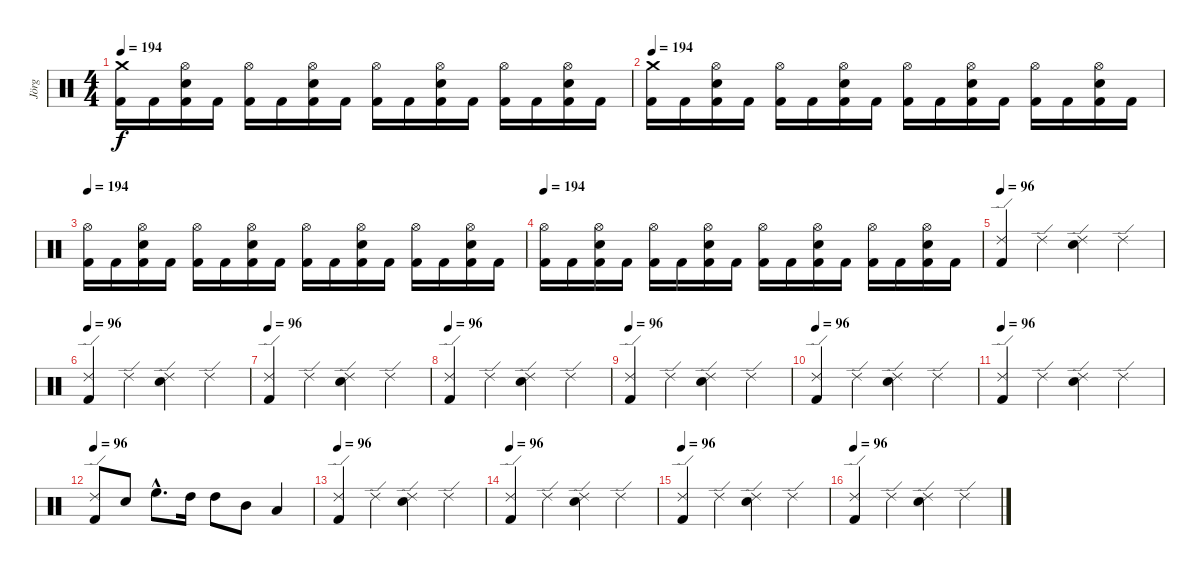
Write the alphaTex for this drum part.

\track ("Jörg" "Jörg") {instrument percussion}
\staff {score}
\articulation defaults
\ts (4 4)
\tempo 194
\clef neutral
\ks c
("Crash medium (hit)" "Kick (hit) 2").16{dy f} "Kick (hit) 2".16 ("Kick (hit) 2" "Snare (hit) 2" "Hi-Hat (open)").16 "Kick (hit) 2".16 ("Kick (hit) 2" "Hi-Hat (open)").16 "Kick (hit) 2".16 ("Kick (hit) 2" "Snare (hit) 2" "Hi-Hat (open)").16 "Kick (hit) 2".16 ("Kick (hit) 2" "Hi-Hat (open)").16 "Kick (hit) 2".16 ("Kick (hit) 2" "Snare (hit) 2" "Hi-Hat (open)").16 "Kick (hit) 2".16 ("Kick (hit) 2" "Hi-Hat (open)").16 "Kick (hit) 2".16 ("Kick (hit) 2" "Snare (hit) 2" "Hi-Hat (open)").16 "Kick (hit) 2".16 |
\tempo 194
("Crash medium (hit)" "Kick (hit) 2").16 "Kick (hit) 2".16 ("Kick (hit) 2" "Snare (hit) 2" "Hi-Hat (open)").16 "Kick (hit) 2".16 ("Kick (hit) 2" "Hi-Hat (open)").16 "Kick (hit) 2".16 ("Kick (hit) 2" "Snare (hit) 2" "Hi-Hat (open)").16 "Kick (hit) 2".16 ("Kick (hit) 2" "Hi-Hat (open)").16 "Kick (hit) 2".16 ("Kick (hit) 2" "Snare (hit) 2" "Hi-Hat (open)").16 "Kick (hit) 2".16 ("Kick (hit) 2" "Hi-Hat (open)").16 "Kick (hit) 2".16 ("Kick (hit) 2" "Snare (hit) 2" "Hi-Hat (open)").16 "Kick (hit) 2".16 |
\tempo 194
("Kick (hit) 2" "Hi-Hat (open)").16 "Kick (hit) 2".16 ("Kick (hit) 2" "Snare (hit) 2" "Hi-Hat (open)").16 "Kick (hit) 2".16 ("Kick (hit) 2" "Hi-Hat (open)").16 "Kick (hit) 2".16 ("Kick (hit) 2" "Snare (hit) 2" "Hi-Hat (open)").16 "Kick (hit) 2".16 ("Kick (hit) 2" "Hi-Hat (open)").16 "Kick (hit) 2".16 ("Kick (hit) 2" "Snare (hit) 2" "Hi-Hat (open)").16 "Kick (hit) 2".16 ("Kick (hit) 2" "Hi-Hat (open)").16 "Kick (hit) 2".16 ("Kick (hit) 2" "Snare (hit) 2" "Hi-Hat (open)").16 "Kick (hit) 2".16 |
\tempo 194
("Kick (hit) 2" "Hi-Hat (open)").16 "Kick (hit) 2".16 ("Kick (hit) 2" "Snare (hit) 2" "Hi-Hat (open)").16 "Kick (hit) 2".16 ("Kick (hit) 2" "Hi-Hat (open)").16 "Kick (hit) 2".16 ("Kick (hit) 2" "Snare (hit) 2" "Hi-Hat (open)").16 "Kick (hit) 2".16 ("Kick (hit) 2" "Hi-Hat (open)").16 "Kick (hit) 2".16 ("Kick (hit) 2" "Snare (hit) 2" "Hi-Hat (open)").16 "Kick (hit) 2".16 ("Kick (hit) 2" "Hi-Hat (open)").16 "Kick (hit) 2".16 ("Kick (hit) 2" "Snare (hit) 2" "Hi-Hat (open)").16 "Kick (hit) 2".16 |
\tempo 96
("Ride (edge) 2" "Kick (hit) 2").4 "Ride (edge) 2".4 ("Ride (edge) 2" "Snare (hit) 2").4 "Ride (edge) 2".4 |
\tempo 96
("Ride (edge) 2" "Kick (hit) 2").4 "Ride (edge) 2".4 ("Ride (edge) 2" "Snare (hit) 2").4 "Ride (edge) 2".4 |
\tempo 96
("Ride (edge) 2" "Kick (hit) 2").4 "Ride (edge) 2".4 ("Ride (edge) 2" "Snare (hit) 2").4 "Ride (edge) 2".4 |
\tempo 96
("Ride (edge) 2" "Kick (hit) 2").4 "Ride (edge) 2".4 ("Ride (edge) 2" "Snare (hit) 2").4 "Ride (edge) 2".4 |
\tempo 96
("Ride (edge) 2" "Kick (hit) 2").4 "Ride (edge) 2".4 ("Ride (edge) 2" "Snare (hit) 2").4 "Ride (edge) 2".4 |
\tempo 96
("Ride (edge) 2" "Kick (hit) 2").4 "Ride (edge) 2".4 ("Ride (edge) 2" "Snare (hit) 2").4 "Ride (edge) 2".4 |
\tempo 96
("Ride (edge) 2" "Kick (hit) 2").4 "Ride (edge) 2".4 ("Ride (edge) 2" "Snare (hit) 2").4 "Ride (edge) 2".4 |
\tempo 96
("Ride (edge) 2" "Kick (hit) 2").8 "Snare (hit) 2".8 "High Floor Tom (hit)"{hac}.8{d} "High Tom (hit)".16 "High Tom (hit)".8 "Mid Tom (hit)".8 "Low Tom (hit)".4 |
\tempo 96
("Ride (edge) 2" "Kick (hit) 2").4 "Ride (edge) 2".4 ("Ride (edge) 2" "Snare (hit) 2").4 "Ride (edge) 2".4 |
\tempo 96
("Ride (edge) 2" "Kick (hit) 2").4 "Ride (edge) 2".4 ("Ride (edge) 2" "Snare (hit) 2").4 "Ride (edge) 2".4 |
\tempo 96
("Ride (edge) 2" "Kick (hit) 2").4 "Ride (edge) 2".4 ("Ride (edge) 2" "Snare (hit) 2").4 "Ride (edge) 2".4 |
\tempo 96
("Ride (edge) 2" "Kick (hit) 2").4 "Ride (edge) 2".4 ("Ride (edge) 2" "Snare (hit) 2").4 "Ride (edge) 2".4
